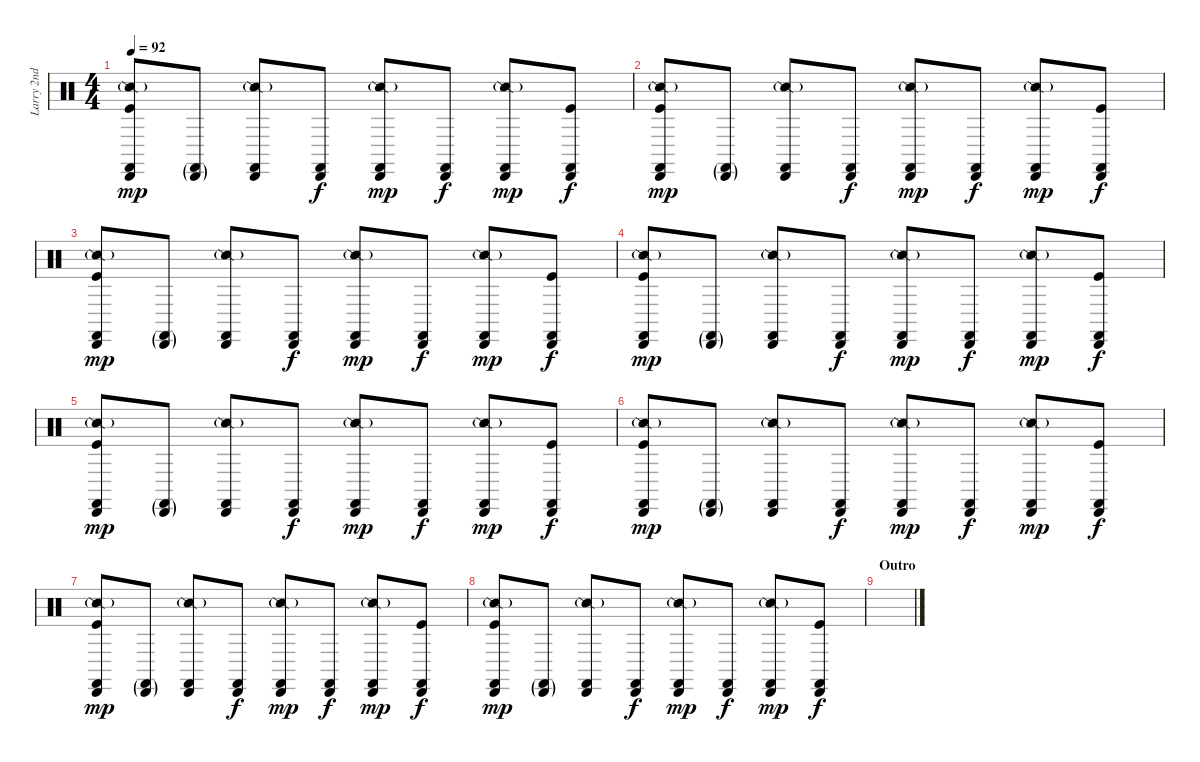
\track ("Larry 2nd" "Larry 2nd") {instrument percussion}
\staff {score}
\articulation defaults
\ts (4 4)
\tempo 92
\clef neutral
\ks c
("Snare (side stick) 2"{g} "Castanets (hit)" "Cabasa (hit)" "Kick (hit)").8{dy mp} ("Castanets (hit)"{g} "Cabasa (hit)"{g}).8 ("Snare (side stick) 2"{g} "Castanets (hit)" "Cabasa (hit)").8 ("Castanets (hit)" "Cabasa (hit)").8{dy f} ("Snare (side stick) 2"{g} "Castanets (hit)" "Cabasa (hit)").8{dy mp} ("Castanets (hit)" "Cabasa (hit)").8{dy f} ("Snare (side stick) 2"{g} "Castanets (hit)" "Cabasa (hit)").8{dy mp} ("Castanets (hit)" "Cabasa (hit)" "Kick (hit)").8{dy f} |
("Snare (side stick) 2"{g} "Castanets (hit)" "Cabasa (hit)" "Kick (hit)").8{dy mp} ("Castanets (hit)"{g} "Cabasa (hit)"{g}).8 ("Snare (side stick) 2"{g} "Castanets (hit)" "Cabasa (hit)").8 ("Castanets (hit)" "Cabasa (hit)").8{dy f} ("Snare (side stick) 2"{g} "Castanets (hit)" "Cabasa (hit)").8{dy mp} ("Castanets (hit)" "Cabasa (hit)").8{dy f} ("Snare (side stick) 2"{g} "Castanets (hit)" "Cabasa (hit)").8{dy mp} ("Castanets (hit)" "Cabasa (hit)" "Kick (hit)").8{dy f} |
("Snare (side stick) 2"{g} "Castanets (hit)" "Cabasa (hit)" "Kick (hit)").8{dy mp} ("Castanets (hit)"{g} "Cabasa (hit)"{g}).8 ("Snare (side stick) 2"{g} "Castanets (hit)" "Cabasa (hit)").8 ("Castanets (hit)" "Cabasa (hit)").8{dy f} ("Snare (side stick) 2"{g} "Castanets (hit)" "Cabasa (hit)").8{dy mp} ("Castanets (hit)" "Cabasa (hit)").8{dy f} ("Snare (side stick) 2"{g} "Castanets (hit)" "Cabasa (hit)").8{dy mp} ("Castanets (hit)" "Cabasa (hit)" "Kick (hit)").8{dy f} |
("Snare (side stick) 2"{g} "Castanets (hit)" "Cabasa (hit)" "Kick (hit)").8{dy mp} ("Castanets (hit)"{g} "Cabasa (hit)"{g}).8 ("Snare (side stick) 2"{g} "Castanets (hit)" "Cabasa (hit)").8 ("Castanets (hit)" "Cabasa (hit)").8{dy f} ("Snare (side stick) 2"{g} "Castanets (hit)" "Cabasa (hit)").8{dy mp} ("Castanets (hit)" "Cabasa (hit)").8{dy f} ("Snare (side stick) 2"{g} "Castanets (hit)" "Cabasa (hit)").8{dy mp} ("Castanets (hit)" "Cabasa (hit)" "Kick (hit)").8{dy f} |
("Snare (side stick) 2"{g} "Castanets (hit)" "Cabasa (hit)" "Kick (hit)").8{dy mp} ("Castanets (hit)"{g} "Cabasa (hit)"{g}).8 ("Snare (side stick) 2"{g} "Castanets (hit)" "Cabasa (hit)").8 ("Castanets (hit)" "Cabasa (hit)").8{dy f} ("Snare (side stick) 2"{g} "Castanets (hit)" "Cabasa (hit)").8{dy mp} ("Castanets (hit)" "Cabasa (hit)").8{dy f} ("Snare (side stick) 2"{g} "Castanets (hit)" "Cabasa (hit)").8{dy mp} ("Castanets (hit)" "Cabasa (hit)" "Kick (hit)").8{dy f} |
("Snare (side stick) 2"{g} "Castanets (hit)" "Cabasa (hit)" "Kick (hit)").8{dy mp} ("Castanets (hit)"{g} "Cabasa (hit)"{g}).8 ("Snare (side stick) 2"{g} "Castanets (hit)" "Cabasa (hit)").8 ("Castanets (hit)" "Cabasa (hit)").8{dy f} ("Snare (side stick) 2"{g} "Castanets (hit)" "Cabasa (hit)").8{dy mp} ("Castanets (hit)" "Cabasa (hit)").8{dy f} ("Snare (side stick) 2"{g} "Castanets (hit)" "Cabasa (hit)").8{dy mp} ("Castanets (hit)" "Cabasa (hit)" "Kick (hit)").8{dy f} |
("Snare (side stick) 2"{g} "Castanets (hit)" "Cabasa (hit)" "Kick (hit)").8{dy mp} ("Castanets (hit)"{g} "Cabasa (hit)"{g}).8 ("Snare (side stick) 2"{g} "Castanets (hit)" "Cabasa (hit)").8 ("Castanets (hit)" "Cabasa (hit)").8{dy f} ("Snare (side stick) 2"{g} "Castanets (hit)" "Cabasa (hit)").8{dy mp} ("Castanets (hit)" "Cabasa (hit)").8{dy f} ("Snare (side stick) 2"{g} "Castanets (hit)" "Cabasa (hit)").8{dy mp} ("Castanets (hit)" "Cabasa (hit)" "Kick (hit)").8{dy f} |
("Snare (side stick) 2"{g} "Castanets (hit)" "Cabasa (hit)" "Kick (hit)").8{dy mp} ("Castanets (hit)"{g} "Cabasa (hit)"{g}).8 ("Snare (side stick) 2"{g} "Castanets (hit)" "Cabasa (hit)").8 ("Castanets (hit)" "Cabasa (hit)").8{dy f} ("Snare (side stick) 2"{g} "Castanets (hit)" "Cabasa (hit)").8{dy mp} ("Castanets (hit)" "Cabasa (hit)").8{dy f} ("Snare (side stick) 2"{g} "Castanets (hit)" "Cabasa (hit)").8{dy mp} ("Castanets (hit)" "Cabasa (hit)" "Kick (hit)").8{dy f} |
\section ("" "Outro")
